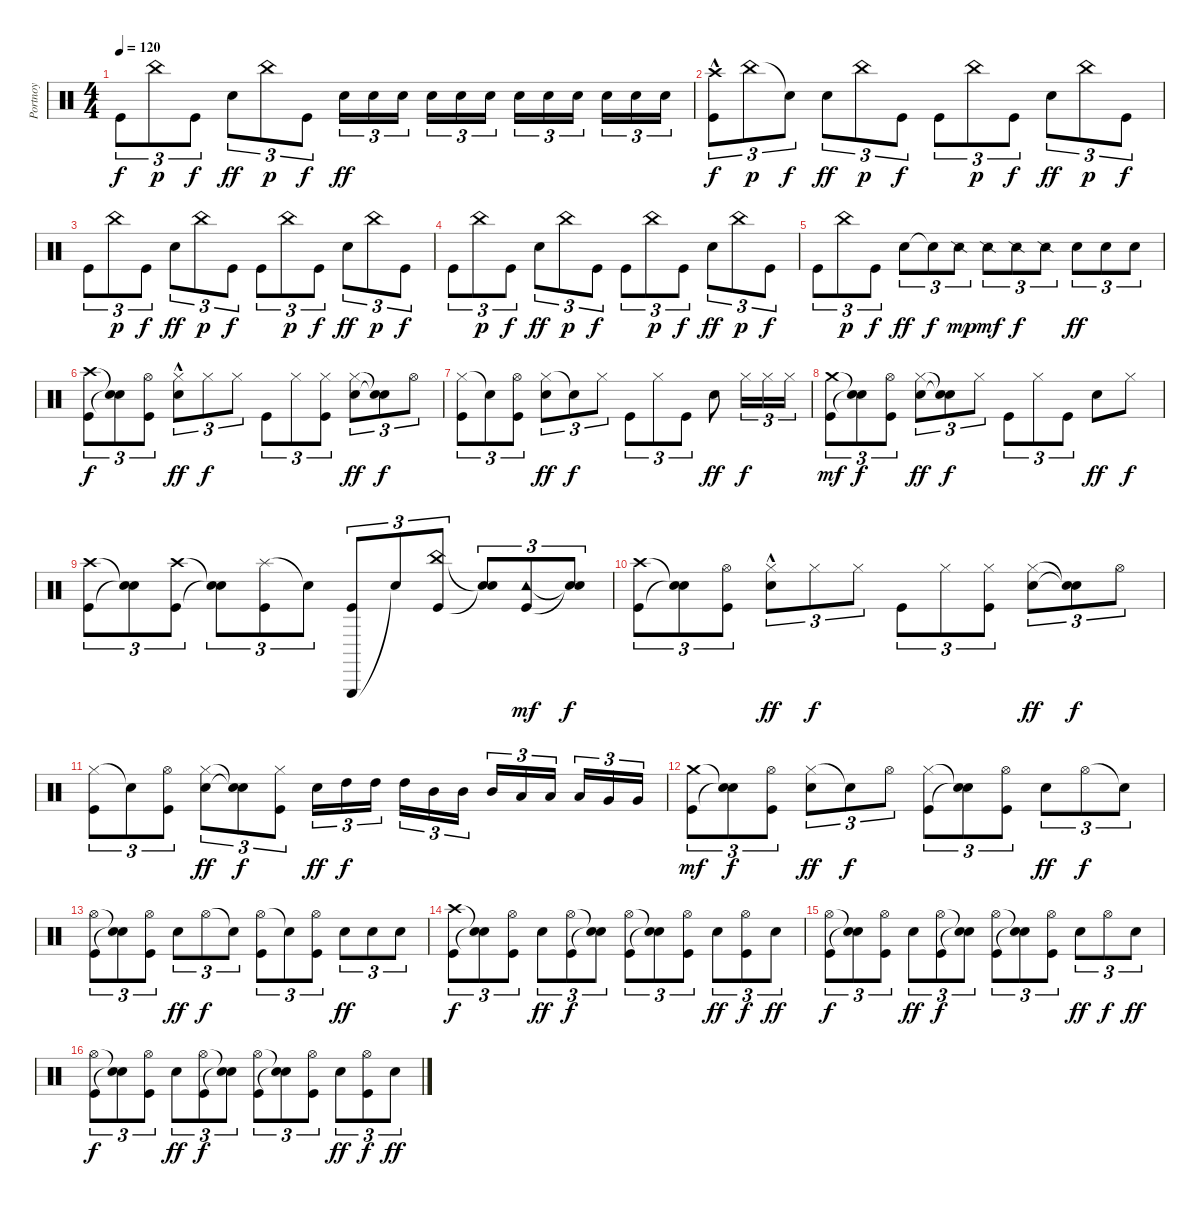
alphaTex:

\track ("Portnoy" "Portnoy") {instrument percussion}
\staff {score}
\articulation defaults
\ts (4 4)
\tempo 120
\clef neutral
\ks c "Kick (hit)".8{tu (3 2) dy f} "China (hit)".8{tu (3 2) dy p} "Kick (hit)".8{tu (3 2) dy f} "Electric Snare (hit)".8{tu (3 2) dy ff} "China (hit)".8{tu (3 2) dy p} "Kick (hit)".8{tu (3 2) dy f} "Electric Snare (hit)".16{tu (3 2) dy ff} "Electric Snare (hit)".16{tu (3 2)} "Electric Snare (hit)".16{tu (3 2)} "Electric Snare (hit)".16{tu (3 2)} "Electric Snare (hit)".16{tu (3 2)} "Electric Snare (hit)".16{tu (3 2)} "Electric Snare (hit)".16{tu (3 2)} "Electric Snare (hit)".16{tu (3 2)} "Electric Snare (hit)".16{tu (3 2)} "Electric Snare (hit)".16{tu (3 2)} "Electric Snare (hit)".16{tu (3 2)} "Electric Snare (hit)".16{tu (3 2)}
|
("Crash high (hit)"{hac} "Kick (hit)").8{tu (3 2) dy f} "China (hit)".8{tu (3 2) dy p} "Snare (hit)"{t}.8{tu (3 2) dy f} "Electric Snare (hit)".8{tu (3 2) dy ff} "China (hit)".8{tu (3 2) dy p} "Kick (hit)".8{tu (3 2) dy f} "Kick (hit)".8{tu (3 2)} "China (hit)".8{tu (3 2) dy p} "Kick (hit)".8{tu (3 2) dy f} "Electric Snare (hit)".8{tu (3 2) dy ff} "China (hit)".8{tu (3 2) dy p} "Kick (hit)".8{tu (3 2) dy f} |
"Kick (hit)".8{tu (3 2)} "China (hit)".8{tu (3 2) dy p} "Kick (hit)".8{tu (3 2) dy f} "Electric Snare (hit)".8{tu (3 2) dy ff} "China (hit)".8{tu (3 2) dy p} "Kick (hit)".8{tu (3 2) dy f} "Kick (hit)".8{tu (3 2)} "China (hit)".8{tu (3 2) dy p} "Kick (hit)".8{tu (3 2) dy f} "Electric Snare (hit)".8{tu (3 2) dy ff} "China (hit)".8{tu (3 2) dy p} "Kick (hit)".8{tu (3 2) dy f} |
"Kick (hit)".8{tu (3 2)} "China (hit)".8{tu (3 2) dy p} "Kick (hit)".8{tu (3 2) dy f} "Electric Snare (hit)".8{tu (3 2) dy ff} "China (hit)".8{tu (3 2) dy p} "Kick (hit)".8{tu (3 2) dy f} "Kick (hit)".8{tu (3 2)} "China (hit)".8{tu (3 2) dy p} "Kick (hit)".8{tu (3 2) dy f} "Electric Snare (hit)".8{tu (3 2) dy ff} "China (hit)".8{tu (3 2) dy p} "Kick (hit)".8{tu (3 2) dy f} |
"Kick (hit)".8{tu (3 2)} "China (hit)".8{tu (3 2) dy p} "Kick (hit)".8{tu (3 2) dy f} "Electric Snare (hit)".8{tu (3 2) dy ff} "Snare (hit)"{t}.8{tu (3 2) dy f} "Snare (side stick) 2".8{tu (3 2) dy mp} "Snare (side stick) 2".8{tu (3 2) dy mf} "Snare (side stick) 2".8{tu (3 2) dy f} "Snare (side stick) 2".8{tu (3 2)} "Electric Snare (hit)".8{tu (3 2) dy ff} "Electric Snare (hit)".8{tu (3 2)} "Electric Snare (hit)".8{tu (3 2)} |
("Crash high (hit)" "Kick (hit)").8{tu (3 2) dy f} ("Snare (hit)"{t} "Snare (hit)"{t}).8{tu (3 2)} ("Hi-Hat (open)" "Kick (hit)").8{tu (3 2)} ("Hi-Hat (closed)"{hac} "Electric Snare (hit)").8{tu (3 2) dy ff} "Hi-Hat (closed)".8{tu (3 2) dy f} "Hi-Hat (closed)".8{tu (3 2)} "Kick (hit)".8{tu (3 2)} "Hi-Hat (closed)".8{tu (3 2)} ("Hi-Hat (closed)" "Kick (hit)").8{tu (3 2)} ("Hi-Hat (closed)" "Electric Snare (hit)").8{tu (3 2) dy ff} ("Snare (hit)"{t} "Snare (hit)"{t}).8{tu (3 2) dy f} "Hi-Hat (open)".8{tu (3 2)} |
("Hi-Hat (closed)" "Kick (hit)").8{tu (3 2)} "Snare (hit)"{t}.8{tu (3 2)} ("Hi-Hat (open)" "Kick (hit)").8{tu (3 2)} ("Hi-Hat (closed)" "Electric Snare (hit)").8{tu (3 2) dy ff} "Snare (hit)"{t}.8{tu (3 2) dy f} "Hi-Hat (closed)".8{tu (3 2)} "Kick (hit)".8{tu (3 2)} "Hi-Hat (closed)".8{tu (3 2)} "Kick (hit)".8{tu (3 2)} "Electric Snare (hit)".8{dy ff} "Hi-Hat (closed)".16{tu (3 2) dy f} "Hi-Hat (closed)".16{tu (3 2)} "Hi-Hat (closed)".16{tu (3 2)} |
("Crash medium (hit)" "Kick (hit)").8{tu (3 2) dy mf} ("Snare (hit)"{t} "Snare (hit)"{t}).8{tu (3 2) dy f} ("Hi-Hat (open)" "Kick (hit)").8{tu (3 2)} ("Hi-Hat (closed)" "Electric Snare (hit)").8{tu (3 2) dy ff} ("Snare (hit)"{t} "Snare (hit)"{t}).8{tu (3 2) dy f} "Hi-Hat (closed)".8{tu (3 2)} "Kick (hit)".8{tu (3 2)} "Hi-Hat (closed)".8{tu (3 2)} "Kick (hit)".8{tu (3 2)} "Electric Snare (hit)".8{dy ff} "Hi-Hat (closed)".8{dy f} |
("Crash high (hit)" "Kick (hit)").8{tu (3 2)} ("Snare (hit)"{t} "Snare (hit)"{t}).8{tu (3 2)} ("Crash high (hit)" "Kick (hit)").8{tu (3 2)} ("Snare (hit)"{t} "Snare (hit)"{t}).8{tu (3 2)} ("Splash (hit)" "Kick (hit)").8{tu (3 2)} "Snare (hit)"{t}.8{tu (3 2)} ("Triangle (hit)" "Kick (hit)").8{tu (3 2)} "Snare (hit)"{t}.8{tu (3 2)} ("China (hit)" "Kick (hit)").8{tu (3 2)} ("Snare (hit)"{t} "Snare (hit)"{t}).8{tu (3 2)} ("Tambourine (hit)" "Kick (hit)").8{tu (3 2) dy mf} ("Snare (hit)"{t} "Snare (hit)"{t}).8{tu (3 2) dy f} |
("Crash high (hit)" "Kick (hit)").8{tu (3 2)} ("Snare (hit)"{t} "Snare (hit)"{t}).8{tu (3 2)} ("Hi-Hat (open)" "Kick (hit)").8{tu (3 2)} ("Hi-Hat (closed)"{hac} "Electric Snare (hit)").8{tu (3 2) dy ff} "Hi-Hat (closed)".8{tu (3 2) dy f} "Hi-Hat (closed)".8{tu (3 2)} "Kick (hit)".8{tu (3 2)} "Hi-Hat (closed)".8{tu (3 2)} ("Hi-Hat (closed)" "Kick (hit)").8{tu (3 2)} ("Hi-Hat (closed)" "Electric Snare (hit)").8{tu (3 2) dy ff} ("Snare (hit)"{t} "Snare (hit)"{t}).8{tu (3 2) dy f} "Hi-Hat (open)".8{tu (3 2)} |
("Hi-Hat (closed)" "Kick (hit)").8{tu (3 2)} "Snare (hit)"{t}.8{tu (3 2)} ("Hi-Hat (open)" "Kick (hit)").8{tu (3 2)} ("Hi-Hat (closed)" "Electric Snare (hit)").8{tu (3 2) dy ff} ("Snare (hit)"{t} "Snare (hit)"{t}).8{tu (3 2) dy f} ("Hi-Hat (closed)" "Kick (hit)").8{tu (3 2)} "Electric Snare (hit)".16{tu (3 2) dy ff} "High Tom (hit)".16{tu (3 2) dy f} "High Tom (hit)".16{tu (3 2)} "High Tom (hit)".16{tu (3 2)} "Mid Tom (hit)".16{tu (3 2)} "Mid Tom (hit)".16{tu (3 2)} "Mid Tom (hit)".16{tu (3 2)} "Low Tom (hit)".16{tu (3 2)} "Low Tom (hit)".16{tu (3 2)} "Low Tom (hit)".16{tu (3 2)} "Very Low Tom (hit)".16{tu (3 2)} "Very Low Tom (hit)".16{tu (3 2)} |
("Crash medium (hit)" "Kick (hit)").8{tu (3 2) dy mf} ("Snare (hit)"{t} "Snare (hit)"{t}).8{tu (3 2) dy f} ("Hi-Hat (open)" "Kick (hit)").8{tu (3 2)} ("Hi-Hat (closed)" "Electric Snare (hit)").8{tu (3 2) dy ff} "Snare (hit)"{t}.8{tu (3 2) dy f} "Hi-Hat (open)".8{tu (3 2)} ("Hi-Hat (closed)" "Kick (hit)").8{tu (3 2)} ("Snare (hit)"{t} "Snare (hit)"{t}).8{tu (3 2)} ("Hi-Hat (open)" "Kick (hit)").8{tu (3 2)} "Electric Snare (hit)".8{tu (3 2) dy ff} "Hi-Hat (open)".8{tu (3 2) dy f} "Snare (hit)"{t}.8{tu (3 2)} |
("Hi-Hat (open)" "Kick (hit)").8{tu (3 2)} ("Snare (hit)"{t} "Snare (hit)"{t}).8{tu (3 2)} ("Hi-Hat (open)" "Kick (hit)").8{tu (3 2)} "Electric Snare (hit)".8{tu (3 2) dy ff} "Hi-Hat (open)".8{tu (3 2) dy f} "Snare (hit)"{t}.8{tu (3 2)} ("Hi-Hat (open)" "Kick (hit)").8{tu (3 2)} "Snare (hit)"{t}.8{tu (3 2)} ("Hi-Hat (open)" "Kick (hit)").8{tu (3 2)} "Electric Snare (hit)".8{tu (3 2) dy ff} "Electric Snare (hit)".8{tu (3 2)} "Electric Snare (hit)".8{tu (3 2)} |
("Crash high (hit)" "Kick (hit)").8{tu (3 2) dy f} ("Snare (hit)"{t} "Snare (hit)"{t}).8{tu (3 2)} ("Hi-Hat (open)" "Kick (hit)").8{tu (3 2)} "Electric Snare (hit)".8{tu (3 2) dy ff} ("Hi-Hat (open)" "Kick (hit)").8{tu (3 2) dy f} ("Snare (hit)"{t} "Snare (hit)"{t}).8{tu (3 2)} ("Hi-Hat (open)" "Kick (hit)").8{tu (3 2)} ("Snare (hit)"{t} "Snare (hit)"{t}).8{tu (3 2)} ("Hi-Hat (open)" "Kick (hit)").8{tu (3 2)} "Electric Snare (hit)".8{tu (3 2) dy ff} ("Hi-Hat (open)" "Kick (hit)").8{tu (3 2) dy f} "Electric Snare (hit)".8{tu (3 2) dy ff} |
("Hi-Hat (open)" "Kick (hit)").8{tu (3 2) dy f} ("Snare (hit)"{t} "Snare (hit)"{t}).8{tu (3 2)} ("Hi-Hat (open)" "Kick (hit)").8{tu (3 2)} "Electric Snare (hit)".8{tu (3 2) dy ff} ("Hi-Hat (open)" "Kick (hit)").8{tu (3 2) dy f} ("Snare (hit)"{t} "Snare (hit)"{t}).8{tu (3 2)} ("Hi-Hat (open)" "Kick (hit)").8{tu (3 2)} ("Snare (hit)"{t} "Snare (hit)"{t}).8{tu (3 2)} ("Hi-Hat (open)" "Kick (hit)").8{tu (3 2)} "Electric Snare (hit)".8{tu (3 2) dy ff} "Hi-Hat (open)".8{tu (3 2) dy f} "Electric Snare (hit)".8{tu (3 2) dy ff} |
("Hi-Hat (open)" "Kick (hit)").8{tu (3 2) dy f} ("Snare (hit)"{t} "Snare (hit)"{t}).8{tu (3 2)} ("Hi-Hat (open)" "Kick (hit)").8{tu (3 2)} "Electric Snare (hit)".8{tu (3 2) dy ff} ("Hi-Hat (open)" "Kick (hit)").8{tu (3 2) dy f} ("Snare (hit)"{t} "Snare (hit)"{t}).8{tu (3 2)} ("Hi-Hat (open)" "Kick (hit)").8{tu (3 2)} ("Snare (hit)"{t} "Snare (hit)"{t}).8{tu (3 2)} ("Hi-Hat (open)" "Kick (hit)").8{tu (3 2)} "Electric Snare (hit)".8{tu (3 2) dy ff} ("Hi-Hat (open)" "Kick (hit)").8{tu (3 2) dy f} "Electric Snare (hit)".8{tu (3 2) dy ff}
